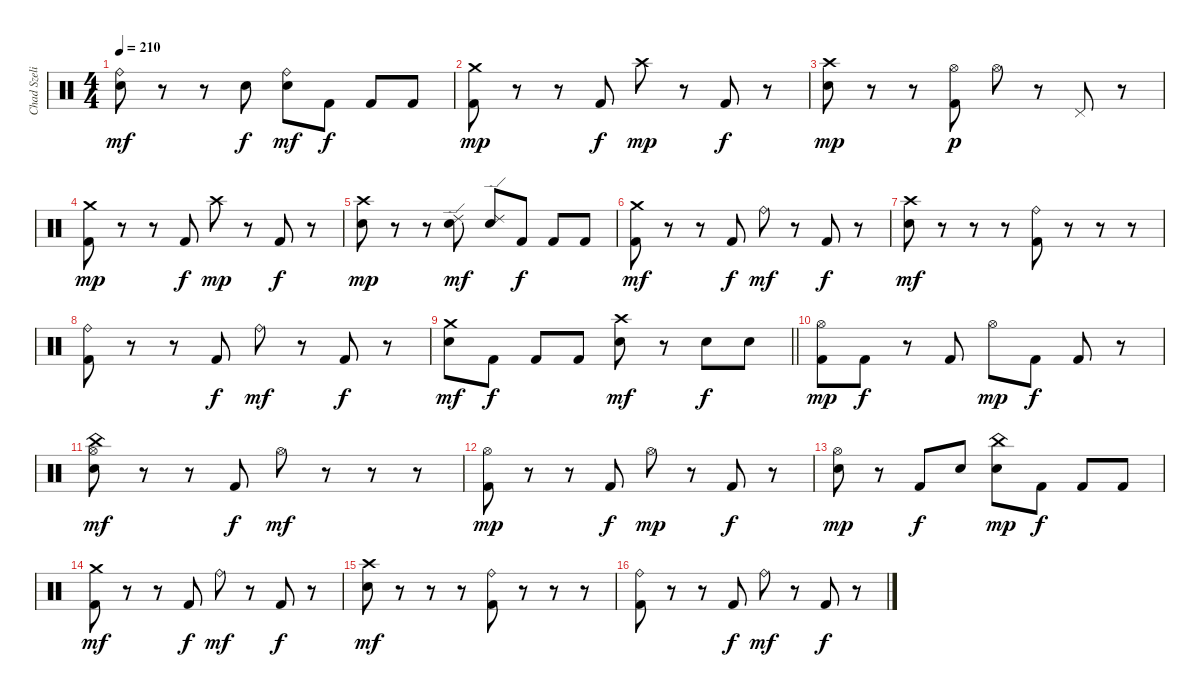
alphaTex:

\track ("Chad Szeliga" "Chad Szeli") {instrument percussion}
\staff {score}
\articulation defaults
\ts (4 4)
\tempo 210
\clef neutral
\ks c
("Snare (hit) 2" "Ride (bell)").8{dy mf} r.8 r.8 "Snare (hit) 2".8{dy f} ("Snare (hit) 2" "Ride (bell)").8{dy mf} "Kick (hit) 2".8{dy f} "Kick (hit) 2".8 "Kick (hit) 2".8 |
("Kick (hit) 2" "Crash medium (hit)").8{dy mp} r.8 r.8 "Kick (hit) 2".8{dy f} "Crash high (hit)".8{dy mp} r.8 "Kick (hit) 2".8{dy f} r.8 |
("Snare (hit) 2" "Crash high (hit)").8{dy mp} r.8 r.8 ("Kick (hit) 2" "Hi-Hat (open)").8{dy p} "Hi-Hat (open)".8 r.8 "Pedal Hi-Hat (hit)".8 r.8 |
("Kick (hit) 2" "Crash medium (hit)").8{dy mp} r.8 r.8 "Kick (hit) 2".8{dy f} "Crash high (hit)".8{dy mp} r.8 "Kick (hit) 2".8{dy f} r.8 |
("Snare (hit) 2" "Crash high (hit)").8{dy mp} r.8 r.8 ("Snare (hit) 2" "Ride (edge) 2").8{dy mf} ("Snare (hit) 2" "Ride (edge) 2").8 "Kick (hit) 2".8{dy f} "Kick (hit) 2".8 "Kick (hit) 2".8 |
("Kick (hit) 2" "Crash medium (hit)").8{dy mf} r.8 r.8 "Kick (hit) 2".8{dy f} "Ride (bell)".8{dy mf} r.8 "Kick (hit) 2".8{dy f} r.8 |
("Snare (hit) 2" "Crash high (hit)").8{dy mf} r.8 r.8 r.8 ("Kick (hit) 2" "Ride (bell)").8 r.8 r.8 r.8 |
("Kick (hit) 2" "Ride (bell)").8 r.8 r.8 "Kick (hit) 2".8{dy f} "Ride (bell)".8{dy mf} r.8 "Kick (hit) 2".8{dy f} r.8 |
\barLineRight lightlight
("Snare (hit) 2" "Crash medium (hit)").8{dy mf} "Kick (hit) 2".8{dy f} "Kick (hit) 2".8 "Kick (hit) 2".8 ("Snare (hit) 2" "Crash high (hit)").8{dy mf} r.8 "Snare (hit) 2".8{dy f} "Snare (hit) 2".8 |
("Kick (hit) 2" "Hi-Hat (open)").8{dy mp} "Kick (hit) 2".8{dy f} r.8 "Kick (hit) 2".8 "Hi-Hat (open)".8{dy mp} "Kick (hit) 2".8{dy f} "Kick (hit) 2".8 r.8 |
("Snare (hit) 2" "Hi-Hat (open)" "China (hit)").8{dy mf} r.8 r.8 "Kick (hit) 2".8{dy f} "Hi-Hat (open)".8{dy mf} r.8 r.8 r.8 |
("Kick (hit) 2" "Hi-Hat (open)").8{dy mp} r.8 r.8 "Kick (hit) 2".8{dy f} "Hi-Hat (open)".8{dy mp} r.8 "Kick (hit) 2".8{dy f} r.8 |
("Snare (hit) 2" "Hi-Hat (open)").8{dy mp} r.8 "Kick (hit) 2".8{dy f} "Snare (hit) 2".8 ("Snare (hit) 2" "China (hit)").8{dy mp} "Kick (hit) 2".8{dy f} "Kick (hit) 2".8 "Kick (hit) 2".8 |
("Kick (hit) 2" "Crash medium (hit)").8{dy mf} r.8 r.8 "Kick (hit) 2".8{dy f} "Ride (bell)".8{dy mf} r.8 "Kick (hit) 2".8{dy f} r.8 |
("Snare (hit) 2" "Crash high (hit)").8{dy mf} r.8 r.8 r.8 ("Kick (hit) 2" "Ride (bell)").8 r.8 r.8 r.8 |
("Kick (hit) 2" "Ride (bell)").8 r.8 r.8 "Kick (hit) 2".8{dy f} "Ride (bell)".8{dy mf} r.8 "Kick (hit) 2".8{dy f} r.8
